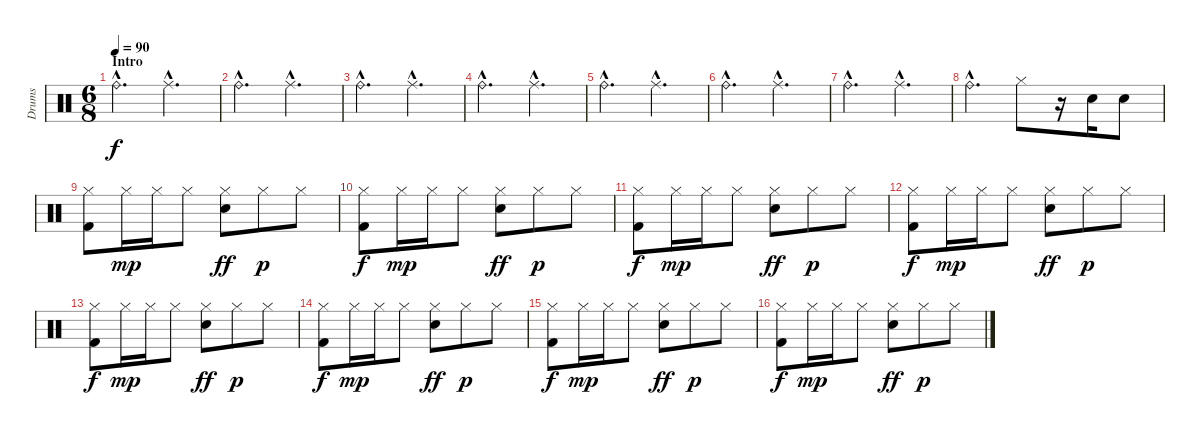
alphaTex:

\track ("Drums" "Drums") {instrument percussion}
\staff {score}
\articulation defaults
\ts (6 8)
\section ("" "Intro")
\tempo 90
\clef neutral
\ks c "Ride (bell)"{hac}.4{d dy f} "Ride (middle)"{hac}.4{d}
|
"Ride (bell)"{hac}.4{d} "Ride (middle)"{hac}.4{d} |
"Ride (bell)"{hac}.4{d} "Ride (middle)"{hac}.4{d} |
"Ride (bell)"{hac}.4{d} "Ride (middle)"{hac}.4{d} |
"Ride (bell)"{hac}.4{d} "Ride (middle)"{hac}.4{d} |
"Ride (bell)"{hac}.4{d} "Ride (middle)"{hac}.4{d} |
"Ride (bell)"{hac}.4{d} "Ride (middle)"{hac}.4{d} |
"Ride (bell)"{hac}.4{d} "Hi-Hat (closed)".8 r.16 "Snare (hit) 2".16 "Snare (hit) 2".8 |
("Kick (hit) 2" "Hi-Hat (closed)").8 "Hi-Hat (closed)".16{dy mp} "Hi-Hat (closed)".16 "Hi-Hat (closed)".8 ("Hi-Hat (closed)" "Snare (hit) 2").8{dy ff} "Hi-Hat (closed)".8{dy p} "Hi-Hat (closed)".8 |
("Kick (hit) 2" "Hi-Hat (closed)").8{dy f} "Hi-Hat (closed)".16{dy mp} "Hi-Hat (closed)".16 "Hi-Hat (closed)".8 ("Hi-Hat (closed)" "Snare (hit) 2").8{dy ff} "Hi-Hat (closed)".8{dy p} "Hi-Hat (closed)".8 |
("Kick (hit) 2" "Hi-Hat (closed)").8{dy f} "Hi-Hat (closed)".16{dy mp} "Hi-Hat (closed)".16 "Hi-Hat (closed)".8 ("Hi-Hat (closed)" "Snare (hit) 2").8{dy ff} "Hi-Hat (closed)".8{dy p} "Hi-Hat (closed)".8 |
("Kick (hit) 2" "Hi-Hat (closed)").8{dy f} "Hi-Hat (closed)".16{dy mp} "Hi-Hat (closed)".16 "Hi-Hat (closed)".8 ("Hi-Hat (closed)" "Snare (hit) 2").8{dy ff} "Hi-Hat (closed)".8{dy p} "Hi-Hat (closed)".8 |
("Kick (hit) 2" "Hi-Hat (closed)").8{dy f} "Hi-Hat (closed)".16{dy mp} "Hi-Hat (closed)".16 "Hi-Hat (closed)".8 ("Hi-Hat (closed)" "Snare (hit) 2").8{dy ff} "Hi-Hat (closed)".8{dy p} "Hi-Hat (closed)".8 |
("Kick (hit) 2" "Hi-Hat (closed)").8{dy f} "Hi-Hat (closed)".16{dy mp} "Hi-Hat (closed)".16 "Hi-Hat (closed)".8 ("Hi-Hat (closed)" "Snare (hit) 2").8{dy ff} "Hi-Hat (closed)".8{dy p} "Hi-Hat (closed)".8 |
("Kick (hit) 2" "Hi-Hat (closed)").8{dy f} "Hi-Hat (closed)".16{dy mp} "Hi-Hat (closed)".16 "Hi-Hat (closed)".8 ("Hi-Hat (closed)" "Snare (hit) 2").8{dy ff} "Hi-Hat (closed)".8{dy p} "Hi-Hat (closed)".8 |
("Kick (hit) 2" "Hi-Hat (closed)").8{dy f} "Hi-Hat (closed)".16{dy mp} "Hi-Hat (closed)".16 "Hi-Hat (closed)".8 ("Hi-Hat (closed)" "Snare (hit) 2").8{dy ff} "Hi-Hat (closed)".8{dy p} "Hi-Hat (closed)".8
